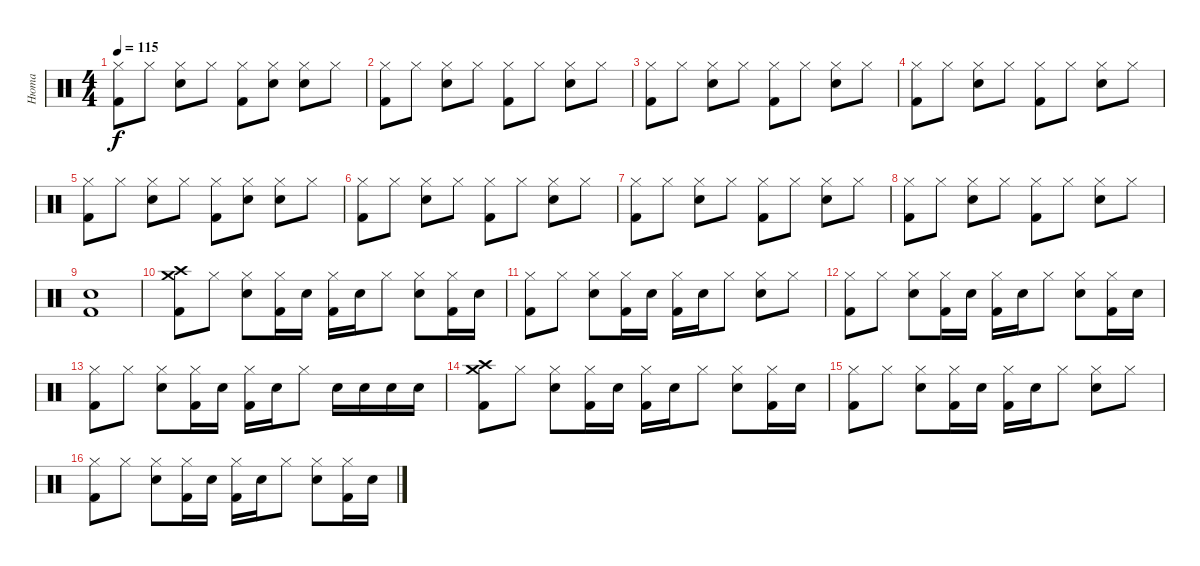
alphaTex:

\track ("Нюта" "Нюта") {instrument percussion}
\staff {score}
\articulation defaults
\ts (4 4)
\tempo 115
\clef neutral
\ks c
("Hi-Hat (closed)" "Kick (hit) 2").8{dy f} "Hi-Hat (closed)".8 ("Hi-Hat (closed)" "Electric Snare (hit)").8 "Hi-Hat (closed)".8 ("Hi-Hat (closed)" "Kick (hit) 2").8 ("Hi-Hat (closed)" "Electric Snare (hit)").8 ("Hi-Hat (closed)" "Electric Snare (hit)").8 "Hi-Hat (closed)".8 |
("Hi-Hat (closed)" "Kick (hit) 2").8 "Hi-Hat (closed)".8 ("Hi-Hat (closed)" "Electric Snare (hit)").8 "Hi-Hat (closed)".8 ("Hi-Hat (closed)" "Kick (hit) 2").8 "Hi-Hat (closed)".8 ("Hi-Hat (closed)" "Electric Snare (hit)").8 "Hi-Hat (closed)".8 |
("Hi-Hat (closed)" "Kick (hit) 2").8 "Hi-Hat (closed)".8 ("Hi-Hat (closed)" "Electric Snare (hit)").8 "Hi-Hat (closed)".8 ("Hi-Hat (closed)" "Kick (hit) 2").8 "Hi-Hat (closed)".8 ("Hi-Hat (closed)" "Electric Snare (hit)").8 "Hi-Hat (closed)".8 |
("Hi-Hat (closed)" "Kick (hit) 2").8 "Hi-Hat (closed)".8 ("Hi-Hat (closed)" "Electric Snare (hit)").8 "Hi-Hat (closed)".8 ("Hi-Hat (closed)" "Kick (hit) 2").8 "Hi-Hat (closed)".8 ("Hi-Hat (closed)" "Electric Snare (hit)").8 "Hi-Hat (closed)".8 |
("Hi-Hat (closed)" "Kick (hit) 2").8 "Hi-Hat (closed)".8 ("Hi-Hat (closed)" "Electric Snare (hit)").8 "Hi-Hat (closed)".8 ("Hi-Hat (closed)" "Kick (hit) 2").8 ("Hi-Hat (closed)" "Electric Snare (hit)").8 ("Hi-Hat (closed)" "Electric Snare (hit)").8 "Hi-Hat (closed)".8 |
("Hi-Hat (closed)" "Kick (hit) 2").8 "Hi-Hat (closed)".8 ("Hi-Hat (closed)" "Electric Snare (hit)").8 "Hi-Hat (closed)".8 ("Hi-Hat (closed)" "Kick (hit) 2").8 "Hi-Hat (closed)".8 ("Hi-Hat (closed)" "Electric Snare (hit)").8 "Hi-Hat (closed)".8 |
("Hi-Hat (closed)" "Kick (hit) 2").8 "Hi-Hat (closed)".8 ("Hi-Hat (closed)" "Electric Snare (hit)").8 "Hi-Hat (closed)".8 ("Hi-Hat (closed)" "Kick (hit) 2").8 "Hi-Hat (closed)".8 ("Hi-Hat (closed)" "Electric Snare (hit)").8 "Hi-Hat (closed)".8 |
("Hi-Hat (closed)" "Kick (hit) 2").8 "Hi-Hat (closed)".8 ("Hi-Hat (closed)" "Electric Snare (hit)").8 "Hi-Hat (closed)".8 ("Hi-Hat (closed)" "Kick (hit) 2").8 "Hi-Hat (closed)".8 ("Hi-Hat (closed)" "Electric Snare (hit)").8 "Hi-Hat (closed)".8 |
("Electric Snare (hit)" "Kick (hit) 2").1 |
("Crash medium (hit)" "Crash high (hit)" "Kick (hit) 2").8 "Hi-Hat (closed)".8 ("Hi-Hat (closed)" "Snare (hit) 2").8 ("Hi-Hat (closed)" "Kick (hit) 2").16 "Snare (hit) 2".16 ("Hi-Hat (closed)" "Kick (hit) 2").16 "Snare (hit) 2".16 "Hi-Hat (closed)".8 ("Hi-Hat (closed)" "Snare (hit) 2").8 ("Hi-Hat (closed)" "Kick (hit) 2").16 "Snare (hit) 2".16 |
("Hi-Hat (closed)" "Kick (hit) 2").8 "Hi-Hat (closed)".8 ("Hi-Hat (closed)" "Snare (hit) 2").8 ("Hi-Hat (closed)" "Kick (hit) 2").16 "Snare (hit) 2".16 ("Hi-Hat (closed)" "Kick (hit) 2").16 "Snare (hit) 2".16 "Hi-Hat (closed)".8 ("Hi-Hat (closed)" "Snare (hit) 2").8 "Hi-Hat (closed)".8 |
("Hi-Hat (closed)" "Kick (hit) 2").8 "Hi-Hat (closed)".8 ("Hi-Hat (closed)" "Snare (hit) 2").8 ("Hi-Hat (closed)" "Kick (hit) 2").16 "Snare (hit) 2".16 ("Hi-Hat (closed)" "Kick (hit) 2").16 "Snare (hit) 2".16 "Hi-Hat (closed)".8 ("Hi-Hat (closed)" "Snare (hit) 2").8 ("Hi-Hat (closed)" "Kick (hit) 2").16 "Snare (hit) 2".16 |
("Hi-Hat (closed)" "Kick (hit) 2").8 "Hi-Hat (closed)".8 ("Hi-Hat (closed)" "Snare (hit) 2").8 ("Hi-Hat (closed)" "Kick (hit) 2").16 "Snare (hit) 2".16 ("Hi-Hat (closed)" "Kick (hit) 2").16 "Snare (hit) 2".16 "Hi-Hat (closed)".8 "Snare (hit) 2".16 "Snare (hit) 2".16 "Snare (hit) 2".16 "Snare (hit) 2".16 |
("Crash medium (hit)" "Crash high (hit)" "Kick (hit) 2").8 "Hi-Hat (closed)".8 ("Hi-Hat (closed)" "Snare (hit) 2").8 ("Hi-Hat (closed)" "Kick (hit) 2").16 "Snare (hit) 2".16 ("Hi-Hat (closed)" "Kick (hit) 2").16 "Snare (hit) 2".16 "Hi-Hat (closed)".8 ("Hi-Hat (closed)" "Snare (hit) 2").8 ("Hi-Hat (closed)" "Kick (hit) 2").16 "Snare (hit) 2".16 |
("Hi-Hat (closed)" "Kick (hit) 2").8 "Hi-Hat (closed)".8 ("Hi-Hat (closed)" "Snare (hit) 2").8 ("Hi-Hat (closed)" "Kick (hit) 2").16 "Snare (hit) 2".16 ("Hi-Hat (closed)" "Kick (hit) 2").16 "Snare (hit) 2".16 "Hi-Hat (closed)".8 ("Hi-Hat (closed)" "Snare (hit) 2").8 "Hi-Hat (closed)".8 |
("Hi-Hat (closed)" "Kick (hit) 2").8 "Hi-Hat (closed)".8 ("Hi-Hat (closed)" "Snare (hit) 2").8 ("Hi-Hat (closed)" "Kick (hit) 2").16 "Snare (hit) 2".16 ("Hi-Hat (closed)" "Kick (hit) 2").16 "Snare (hit) 2".16 "Hi-Hat (closed)".8 ("Hi-Hat (closed)" "Snare (hit) 2").8 ("Hi-Hat (closed)" "Kick (hit) 2").16 "Snare (hit) 2".16
